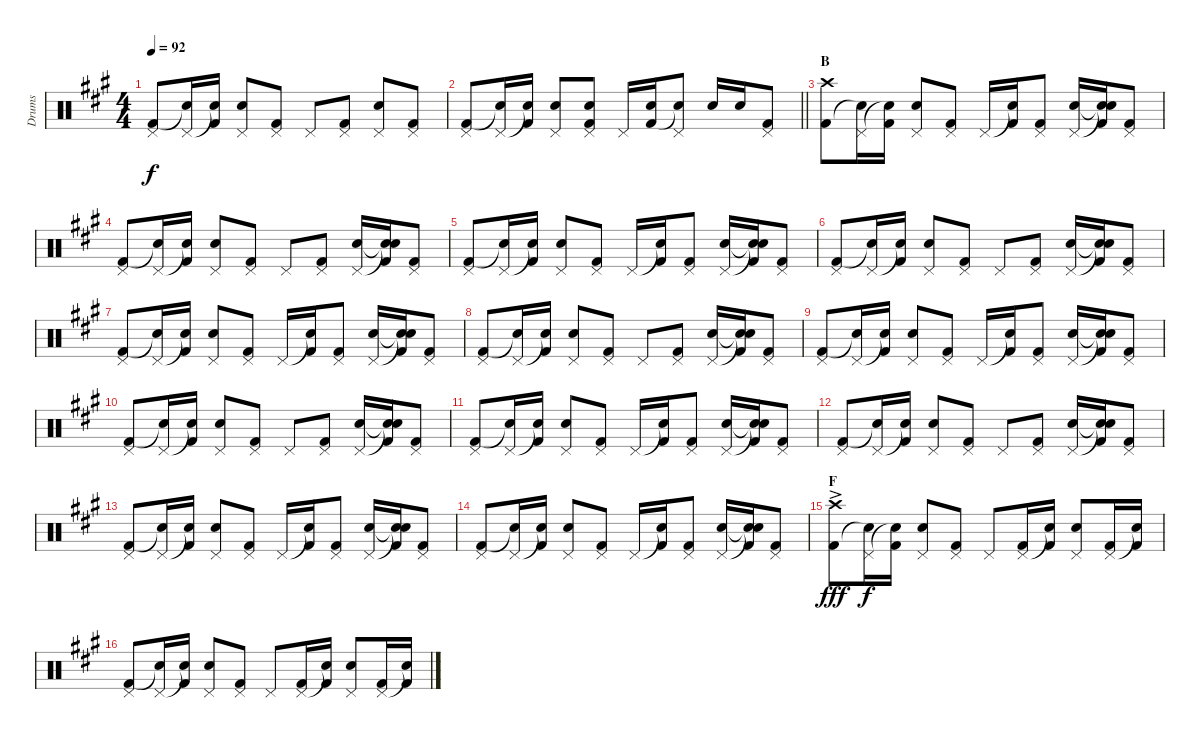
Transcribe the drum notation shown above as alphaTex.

\track ("Drums" "Drums") {instrument percussion}
\staff {score}
\articulation defaults
\ts (4 4)
\tempo 92
\clef neutral
\ks a
("Pedal Hi-Hat (hit)" "Kick (hit) 2").8{dy f} ("Pedal Hi-Hat (hit)" "Snare (hit)"{t}).16 ("Snare (hit)"{t} "Kick (hit) 2").16 ("Pedal Hi-Hat (hit)" "Electric Snare (hit)").8 ("Pedal Hi-Hat (hit)" "Kick (hit) 2").8 "Pedal Hi-Hat (hit)".8 ("Pedal Hi-Hat (hit)" "Kick (hit) 2").8 ("Pedal Hi-Hat (hit)" "Electric Snare (hit)").8 ("Pedal Hi-Hat (hit)" "Kick (hit) 2").8 |
\barLineRight lightlight
("Pedal Hi-Hat (hit)" "Kick (hit) 2").8 ("Pedal Hi-Hat (hit)" "Snare (hit)"{t}).16 ("Snare (hit)"{t} "Kick (hit) 2").16 ("Pedal Hi-Hat (hit)" "Electric Snare (hit)").8 ("Pedal Hi-Hat (hit)" "Electric Snare (hit)" "Kick (hit) 2").8 "Pedal Hi-Hat (hit)".16 ("Electric Snare (hit)" "Kick (hit) 2").16 ("Pedal Hi-Hat (hit)" "Snare (hit)"{t}).8 "Electric Snare (hit)".16 "Electric Snare (hit)".16 ("Pedal Hi-Hat (hit)" "Kick (hit) 2").8 |
\section ("" "B")
("Crash high (hit)" "Kick (hit) 2").8 ("Pedal Hi-Hat (hit)" "Snare (hit)"{t}).16 ("Snare (hit)"{t} "Kick (hit) 2").16 ("Pedal Hi-Hat (hit)" "Electric Snare (hit)").8 ("Pedal Hi-Hat (hit)" "Kick (hit) 2").8 "Pedal Hi-Hat (hit)".16 ("Snare (hit)"{t} "Kick (hit) 2").16 ("Pedal Hi-Hat (hit)" "Kick (hit) 2").8 ("Pedal Hi-Hat (hit)" "Electric Snare (hit)").16 ("Snare (hit)"{t} "Snare (hit)"{t} "Kick (hit) 2").16 ("Pedal Hi-Hat (hit)" "Kick (hit) 2").8 |
("Pedal Hi-Hat (hit)" "Kick (hit) 2").8 ("Pedal Hi-Hat (hit)" "Snare (hit)"{t}).16 ("Snare (hit)"{t} "Kick (hit) 2").16 ("Pedal Hi-Hat (hit)" "Electric Snare (hit)").8 ("Pedal Hi-Hat (hit)" "Kick (hit) 2").8 "Pedal Hi-Hat (hit)".8 ("Pedal Hi-Hat (hit)" "Kick (hit) 2").8 ("Pedal Hi-Hat (hit)" "Electric Snare (hit)").16 ("Snare (hit)"{t} "Snare (hit)"{t} "Kick (hit) 2").16 ("Pedal Hi-Hat (hit)" "Kick (hit) 2").8 |
("Pedal Hi-Hat (hit)" "Kick (hit) 2").8 ("Pedal Hi-Hat (hit)" "Snare (hit)"{t}).16 ("Snare (hit)"{t} "Kick (hit) 2").16 ("Pedal Hi-Hat (hit)" "Electric Snare (hit)").8 ("Pedal Hi-Hat (hit)" "Kick (hit) 2").8 "Pedal Hi-Hat (hit)".16 ("Snare (hit)"{t} "Kick (hit) 2").16 ("Pedal Hi-Hat (hit)" "Kick (hit) 2").8 ("Pedal Hi-Hat (hit)" "Electric Snare (hit)").16 ("Snare (hit)"{t} "Snare (hit)"{t} "Kick (hit) 2").16 ("Pedal Hi-Hat (hit)" "Kick (hit) 2").8 |
("Pedal Hi-Hat (hit)" "Kick (hit) 2").8 ("Pedal Hi-Hat (hit)" "Snare (hit)"{t}).16 ("Snare (hit)"{t} "Kick (hit) 2").16 ("Pedal Hi-Hat (hit)" "Electric Snare (hit)").8 ("Pedal Hi-Hat (hit)" "Kick (hit) 2").8 "Pedal Hi-Hat (hit)".8 ("Pedal Hi-Hat (hit)" "Kick (hit) 2").8 ("Pedal Hi-Hat (hit)" "Electric Snare (hit)").16 ("Snare (hit)"{t} "Snare (hit)"{t} "Kick (hit) 2").16 ("Pedal Hi-Hat (hit)" "Kick (hit) 2").8 |
("Pedal Hi-Hat (hit)" "Kick (hit) 2").8 ("Pedal Hi-Hat (hit)" "Snare (hit)"{t}).16 ("Snare (hit)"{t} "Kick (hit) 2").16 ("Pedal Hi-Hat (hit)" "Electric Snare (hit)").8 ("Pedal Hi-Hat (hit)" "Kick (hit) 2").8 "Pedal Hi-Hat (hit)".16 ("Snare (hit)"{t} "Kick (hit) 2").16 ("Pedal Hi-Hat (hit)" "Kick (hit) 2").8 ("Pedal Hi-Hat (hit)" "Electric Snare (hit)").16 ("Snare (hit)"{t} "Snare (hit)"{t} "Kick (hit) 2").16 ("Pedal Hi-Hat (hit)" "Kick (hit) 2").8 |
("Pedal Hi-Hat (hit)" "Kick (hit) 2").8 ("Pedal Hi-Hat (hit)" "Snare (hit)"{t}).16 ("Snare (hit)"{t} "Kick (hit) 2").16 ("Pedal Hi-Hat (hit)" "Electric Snare (hit)").8 ("Pedal Hi-Hat (hit)" "Kick (hit) 2").8 "Pedal Hi-Hat (hit)".8 ("Pedal Hi-Hat (hit)" "Kick (hit) 2").8 ("Pedal Hi-Hat (hit)" "Electric Snare (hit)").16 ("Snare (hit)"{t} "Snare (hit)"{t} "Kick (hit) 2").16 ("Pedal Hi-Hat (hit)" "Kick (hit) 2").8 |
("Pedal Hi-Hat (hit)" "Kick (hit) 2").8 ("Pedal Hi-Hat (hit)" "Snare (hit)"{t}).16 ("Snare (hit)"{t} "Kick (hit) 2").16 ("Pedal Hi-Hat (hit)" "Electric Snare (hit)").8 ("Pedal Hi-Hat (hit)" "Kick (hit) 2").8 "Pedal Hi-Hat (hit)".16 ("Snare (hit)"{t} "Kick (hit) 2").16 ("Pedal Hi-Hat (hit)" "Kick (hit) 2").8 ("Pedal Hi-Hat (hit)" "Electric Snare (hit)").16 ("Snare (hit)"{t} "Snare (hit)"{t} "Kick (hit) 2").16 ("Pedal Hi-Hat (hit)" "Kick (hit) 2").8 |
("Pedal Hi-Hat (hit)" "Kick (hit) 2").8 ("Pedal Hi-Hat (hit)" "Snare (hit)"{t}).16 ("Snare (hit)"{t} "Kick (hit) 2").16 ("Pedal Hi-Hat (hit)" "Electric Snare (hit)").8 ("Pedal Hi-Hat (hit)" "Kick (hit) 2").8 "Pedal Hi-Hat (hit)".8 ("Pedal Hi-Hat (hit)" "Kick (hit) 2").8 ("Pedal Hi-Hat (hit)" "Electric Snare (hit)").16 ("Snare (hit)"{t} "Snare (hit)"{t} "Kick (hit) 2").16 ("Pedal Hi-Hat (hit)" "Kick (hit) 2").8 |
("Pedal Hi-Hat (hit)" "Kick (hit) 2").8 ("Pedal Hi-Hat (hit)" "Snare (hit)"{t}).16 ("Snare (hit)"{t} "Kick (hit) 2").16 ("Pedal Hi-Hat (hit)" "Electric Snare (hit)").8 ("Pedal Hi-Hat (hit)" "Kick (hit) 2").8 "Pedal Hi-Hat (hit)".16 ("Snare (hit)"{t} "Kick (hit) 2").16 ("Pedal Hi-Hat (hit)" "Kick (hit) 2").8 ("Pedal Hi-Hat (hit)" "Electric Snare (hit)").16 ("Snare (hit)"{t} "Snare (hit)"{t} "Kick (hit) 2").16 ("Pedal Hi-Hat (hit)" "Kick (hit) 2").8 |
("Pedal Hi-Hat (hit)" "Kick (hit) 2").8 ("Pedal Hi-Hat (hit)" "Snare (hit)"{t}).16 ("Snare (hit)"{t} "Kick (hit) 2").16 ("Pedal Hi-Hat (hit)" "Electric Snare (hit)").8 ("Pedal Hi-Hat (hit)" "Kick (hit) 2").8 "Pedal Hi-Hat (hit)".8 ("Pedal Hi-Hat (hit)" "Kick (hit) 2").8 ("Pedal Hi-Hat (hit)" "Electric Snare (hit)").16 ("Snare (hit)"{t} "Snare (hit)"{t} "Kick (hit) 2").16 ("Pedal Hi-Hat (hit)" "Kick (hit) 2").8 |
("Pedal Hi-Hat (hit)" "Kick (hit) 2").8 ("Pedal Hi-Hat (hit)" "Snare (hit)"{t}).16 ("Snare (hit)"{t} "Kick (hit) 2").16 ("Pedal Hi-Hat (hit)" "Electric Snare (hit)").8 ("Pedal Hi-Hat (hit)" "Kick (hit) 2").8 "Pedal Hi-Hat (hit)".16 ("Snare (hit)"{t} "Kick (hit) 2").16 ("Pedal Hi-Hat (hit)" "Kick (hit) 2").8 ("Pedal Hi-Hat (hit)" "Electric Snare (hit)").16 ("Snare (hit)"{t} "Snare (hit)"{t} "Kick (hit) 2").16 ("Pedal Hi-Hat (hit)" "Kick (hit) 2").8 |
("Pedal Hi-Hat (hit)" "Kick (hit) 2").8 ("Pedal Hi-Hat (hit)" "Snare (hit)"{t}).16 ("Snare (hit)"{t} "Kick (hit) 2").16 ("Pedal Hi-Hat (hit)" "Electric Snare (hit)").8 ("Pedal Hi-Hat (hit)" "Kick (hit) 2").8 "Pedal Hi-Hat (hit)".16 ("Snare (hit)"{t} "Kick (hit) 2").16 ("Pedal Hi-Hat (hit)" "Kick (hit) 2").8 ("Pedal Hi-Hat (hit)" "Electric Snare (hit)").16 ("Snare (hit)"{t} "Snare (hit)"{t} "Kick (hit) 2").16 ("Pedal Hi-Hat (hit)" "Kick (hit) 2").8 |
\section ("" "F")
("Crash high (hit)"{ac} "Kick (hit) 2").8{dy fff} ("Pedal Hi-Hat (hit)" "Snare (hit)"{t}).16{dy f} ("Snare (hit)"{t} "Kick (hit) 2").16 ("Pedal Hi-Hat (hit)" "Electric Snare (hit)").8 ("Pedal Hi-Hat (hit)" "Kick (hit) 2").8 "Pedal Hi-Hat (hit)".8 ("Pedal Hi-Hat (hit)" "Kick (hit) 2").16 ("Snare (hit)"{t} "Kick (hit) 2").16 ("Pedal Hi-Hat (hit)" "Electric Snare (hit)").8 ("Pedal Hi-Hat (hit)" "Kick (hit) 2").16 ("Snare (hit)"{t} "Kick (hit) 2").16 |
("Pedal Hi-Hat (hit)" "Kick (hit) 2").8 ("Pedal Hi-Hat (hit)" "Snare (hit)"{t}).16 ("Snare (hit)"{t} "Kick (hit) 2").16 ("Pedal Hi-Hat (hit)" "Electric Snare (hit)").8 ("Pedal Hi-Hat (hit)" "Kick (hit) 2").8 "Pedal Hi-Hat (hit)".8 ("Pedal Hi-Hat (hit)" "Kick (hit) 2").16 ("Snare (hit)"{t} "Kick (hit) 2").16 ("Pedal Hi-Hat (hit)" "Electric Snare (hit)").8 ("Pedal Hi-Hat (hit)" "Kick (hit) 2").16 ("Snare (hit)"{t} "Kick (hit) 2").16
